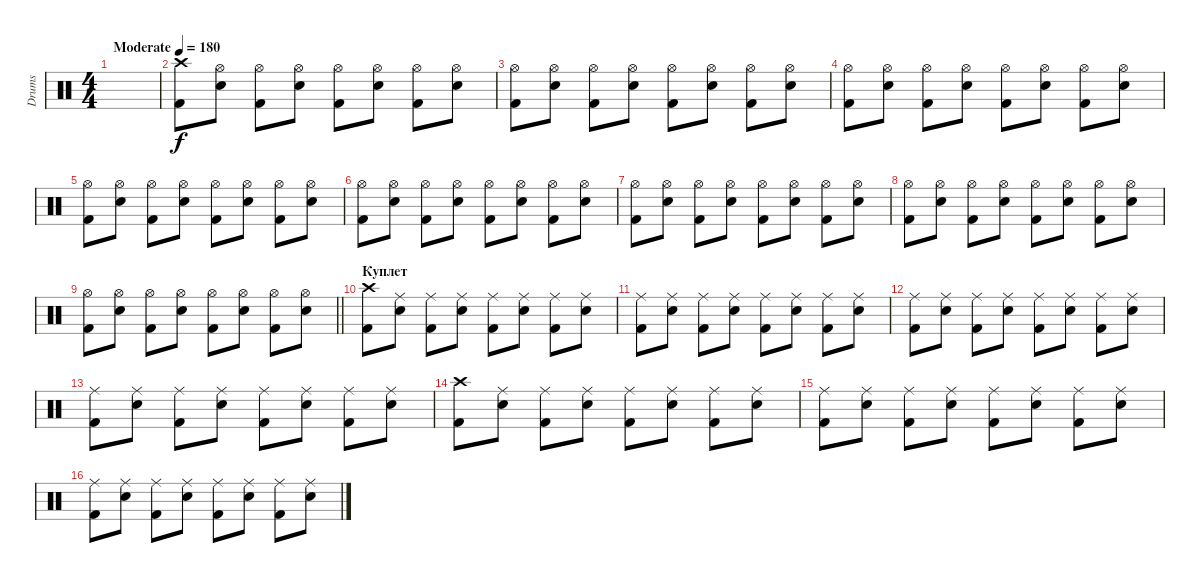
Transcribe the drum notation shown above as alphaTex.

\track ("Drums" "Drums") {instrument percussion}
\staff {score}
\articulation defaults
\ts (4 4)
\tempo (180 "Moderate")
\clef neutral
\ks c
|
("Crash high (hit)" "Kick (hit) 2").8 ("Hi-Hat (open)" "Snare (hit) 2").8 ("Hi-Hat (open)" "Kick (hit) 2").8 ("Hi-Hat (open)" "Snare (hit) 2").8 ("Hi-Hat (open)" "Kick (hit) 2").8 ("Hi-Hat (open)" "Snare (hit) 2").8 ("Hi-Hat (open)" "Kick (hit) 2").8 ("Hi-Hat (open)" "Snare (hit) 2").8 |
("Hi-Hat (open)" "Kick (hit) 2").8 ("Hi-Hat (open)" "Snare (hit) 2").8 ("Hi-Hat (open)" "Kick (hit) 2").8 ("Hi-Hat (open)" "Snare (hit) 2").8 ("Hi-Hat (open)" "Kick (hit) 2").8 ("Hi-Hat (open)" "Snare (hit) 2").8 ("Hi-Hat (open)" "Kick (hit) 2").8 ("Hi-Hat (open)" "Snare (hit) 2").8 |
("Hi-Hat (open)" "Kick (hit) 2").8 ("Hi-Hat (open)" "Snare (hit) 2").8 ("Hi-Hat (open)" "Kick (hit) 2").8 ("Hi-Hat (open)" "Snare (hit) 2").8 ("Hi-Hat (open)" "Kick (hit) 2").8 ("Hi-Hat (open)" "Snare (hit) 2").8 ("Hi-Hat (open)" "Kick (hit) 2").8 ("Hi-Hat (open)" "Snare (hit) 2").8 |
("Hi-Hat (open)" "Kick (hit) 2").8 ("Hi-Hat (open)" "Snare (hit) 2").8 ("Hi-Hat (open)" "Kick (hit) 2").8 ("Hi-Hat (open)" "Snare (hit) 2").8 ("Hi-Hat (open)" "Kick (hit) 2").8 ("Hi-Hat (open)" "Snare (hit) 2").8 ("Hi-Hat (open)" "Kick (hit) 2").8 ("Hi-Hat (open)" "Snare (hit) 2").8 |
("Hi-Hat (open)" "Kick (hit) 2").8 ("Hi-Hat (open)" "Snare (hit) 2").8 ("Hi-Hat (open)" "Kick (hit) 2").8 ("Hi-Hat (open)" "Snare (hit) 2").8 ("Hi-Hat (open)" "Kick (hit) 2").8 ("Hi-Hat (open)" "Snare (hit) 2").8 ("Hi-Hat (open)" "Kick (hit) 2").8 ("Hi-Hat (open)" "Snare (hit) 2").8 |
("Hi-Hat (open)" "Kick (hit) 2").8 ("Hi-Hat (open)" "Snare (hit) 2").8 ("Hi-Hat (open)" "Kick (hit) 2").8 ("Hi-Hat (open)" "Snare (hit) 2").8 ("Hi-Hat (open)" "Kick (hit) 2").8 ("Hi-Hat (open)" "Snare (hit) 2").8 ("Hi-Hat (open)" "Kick (hit) 2").8 ("Hi-Hat (open)" "Snare (hit) 2").8 |
("Hi-Hat (open)" "Kick (hit) 2").8 ("Hi-Hat (open)" "Snare (hit) 2").8 ("Hi-Hat (open)" "Kick (hit) 2").8 ("Hi-Hat (open)" "Snare (hit) 2").8 ("Hi-Hat (open)" "Kick (hit) 2").8 ("Hi-Hat (open)" "Snare (hit) 2").8 ("Hi-Hat (open)" "Kick (hit) 2").8 ("Hi-Hat (open)" "Snare (hit) 2").8 |
\barLineRight lightlight
("Hi-Hat (open)" "Kick (hit) 2").8 ("Hi-Hat (open)" "Snare (hit) 2").8 ("Hi-Hat (open)" "Kick (hit) 2").8 ("Hi-Hat (open)" "Snare (hit) 2").8 ("Hi-Hat (open)" "Kick (hit) 2").8 ("Hi-Hat (open)" "Snare (hit) 2").8 ("Hi-Hat (open)" "Kick (hit) 2").8 ("Hi-Hat (open)" "Snare (hit) 2").8 |
\section ("" "Куплет")
("Crash high (hit)" "Kick (hit) 2").8 ("Ride (middle)" "Snare (hit) 2").8 ("Ride (middle)" "Kick (hit) 2").8 ("Ride (middle)" "Snare (hit) 2").8 ("Ride (middle)" "Kick (hit) 2").8 ("Ride (middle)" "Snare (hit) 2").8 ("Ride (middle)" "Kick (hit) 2").8 ("Ride (middle)" "Snare (hit) 2").8 |
("Ride (middle)" "Kick (hit) 2").8 ("Ride (middle)" "Snare (hit) 2").8 ("Ride (middle)" "Kick (hit) 2").8 ("Ride (middle)" "Snare (hit) 2").8 ("Ride (middle)" "Kick (hit) 2").8 ("Ride (middle)" "Snare (hit) 2").8 ("Ride (middle)" "Kick (hit) 2").8 ("Ride (middle)" "Snare (hit) 2").8 |
("Ride (middle)" "Kick (hit) 2").8 ("Ride (middle)" "Snare (hit) 2").8 ("Ride (middle)" "Kick (hit) 2").8 ("Ride (middle)" "Snare (hit) 2").8 ("Ride (middle)" "Kick (hit) 2").8 ("Ride (middle)" "Snare (hit) 2").8 ("Ride (middle)" "Kick (hit) 2").8 ("Ride (middle)" "Snare (hit) 2").8 |
("Ride (middle)" "Kick (hit) 2").8 ("Ride (middle)" "Snare (hit) 2").8 ("Ride (middle)" "Kick (hit) 2").8 ("Ride (middle)" "Snare (hit) 2").8 ("Ride (middle)" "Kick (hit) 2").8 ("Ride (middle)" "Snare (hit) 2").8 ("Ride (middle)" "Kick (hit) 2").8 ("Ride (middle)" "Snare (hit) 2").8 |
("Crash high (hit)" "Kick (hit) 2").8 ("Ride (middle)" "Snare (hit) 2").8 ("Ride (middle)" "Kick (hit) 2").8 ("Ride (middle)" "Snare (hit) 2").8 ("Ride (middle)" "Kick (hit) 2").8 ("Ride (middle)" "Snare (hit) 2").8 ("Ride (middle)" "Kick (hit) 2").8 ("Ride (middle)" "Snare (hit) 2").8 |
("Ride (middle)" "Kick (hit) 2").8 ("Ride (middle)" "Snare (hit) 2").8 ("Ride (middle)" "Kick (hit) 2").8 ("Ride (middle)" "Snare (hit) 2").8 ("Ride (middle)" "Kick (hit) 2").8 ("Ride (middle)" "Snare (hit) 2").8 ("Ride (middle)" "Kick (hit) 2").8 ("Ride (middle)" "Snare (hit) 2").8 |
("Ride (middle)" "Kick (hit) 2").8 ("Ride (middle)" "Snare (hit) 2").8 ("Ride (middle)" "Kick (hit) 2").8 ("Ride (middle)" "Snare (hit) 2").8 ("Ride (middle)" "Kick (hit) 2").8 ("Ride (middle)" "Snare (hit) 2").8 ("Ride (middle)" "Kick (hit) 2").8 ("Ride (middle)" "Snare (hit) 2").8
